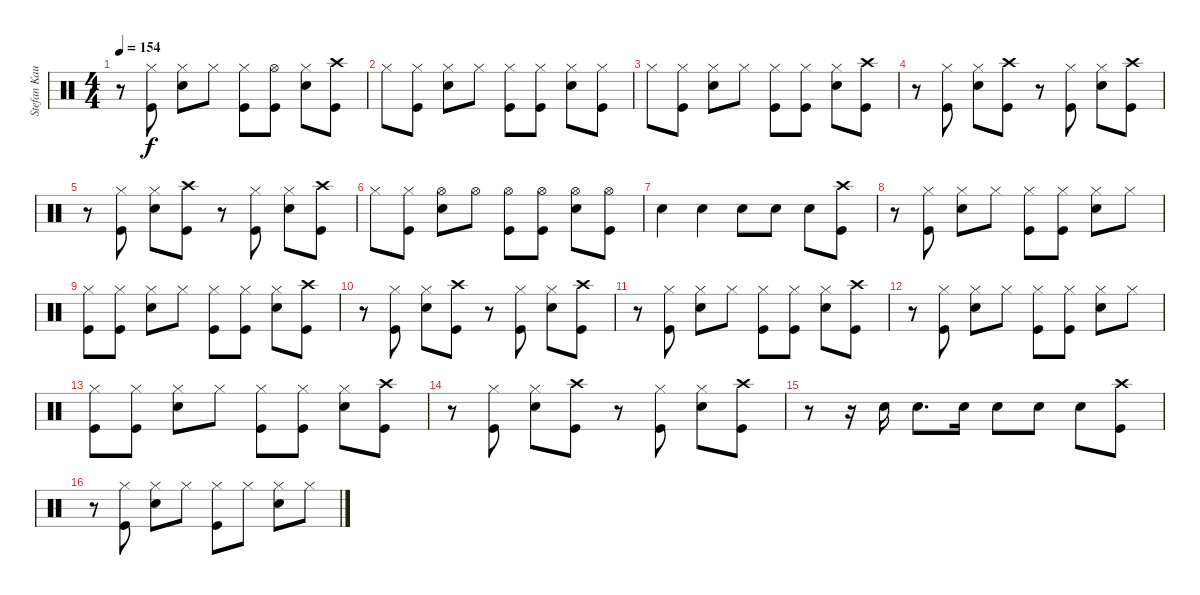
\track ("Stefan Kaufmann" "Stefan Kau") {instrument percussion}
\staff {score}
\articulation defaults
\ts (4 4)
\tempo 154
\clef neutral
\ks c
r.8{dy f} ("Hi-Hat (closed)" "Kick (hit)").8 ("Hi-Hat (closed)" "Snare (hit) 2").8 "Hi-Hat (closed)".8 ("Hi-Hat (closed)" "Kick (hit)").8 ("Hi-Hat (open)" "Kick (hit)").8 ("Hi-Hat (closed)" "Snare (hit) 2").8 ("Crash high (hit)" "Kick (hit)").8 |
"Hi-Hat (closed)".8 ("Hi-Hat (closed)" "Kick (hit)").8 ("Hi-Hat (closed)" "Snare (hit) 2").8 "Hi-Hat (closed)".8 ("Hi-Hat (closed)" "Kick (hit)").8 ("Hi-Hat (closed)" "Kick (hit)").8 ("Hi-Hat (closed)" "Snare (hit) 2").8 ("Hi-Hat (closed)" "Kick (hit)").8 |
"Hi-Hat (closed)".8 ("Hi-Hat (closed)" "Kick (hit)").8 ("Hi-Hat (closed)" "Snare (hit) 2").8 "Hi-Hat (closed)".8 ("Hi-Hat (closed)" "Kick (hit)").8 ("Hi-Hat (closed)" "Kick (hit)").8 ("Hi-Hat (closed)" "Snare (hit) 2").8 ("Crash high (hit)" "Kick (hit)").8 |
r.8 ("Hi-Hat (closed)" "Kick (hit)").8 ("Hi-Hat (closed)" "Snare (hit) 2").8 ("Crash high (hit)" "Kick (hit)").8 r.8 ("Hi-Hat (closed)" "Kick (hit)").8 ("Hi-Hat (closed)" "Snare (hit) 2").8 ("Crash high (hit)" "Kick (hit)").8 |
r.8 ("Hi-Hat (closed)" "Kick (hit)").8 ("Hi-Hat (closed)" "Snare (hit) 2").8 ("Crash high (hit)" "Kick (hit)").8 r.8 ("Hi-Hat (closed)" "Kick (hit)").8 ("Hi-Hat (closed)" "Snare (hit) 2").8 ("Crash high (hit)" "Kick (hit)").8 |
"Hi-Hat (closed)".8 ("Hi-Hat (closed)" "Kick (hit)").8 ("Hi-Hat (open)" "Snare (hit) 2").8 "Hi-Hat (open)".8 ("Hi-Hat (open)" "Kick (hit)").8 ("Hi-Hat (open)" "Kick (hit)").8 ("Hi-Hat (open)" "Snare (hit) 2").8 ("Hi-Hat (open)" "Kick (hit)").8 |
"Snare (hit) 2".4 "Snare (hit) 2".4 "Snare (hit) 2".8 "Snare (hit) 2".8 "Snare (hit) 2".8 ("Crash high (hit)" "Kick (hit)").8 |
r.8 ("Hi-Hat (closed)" "Kick (hit)").8 ("Hi-Hat (closed)" "Snare (hit) 2").8 "Hi-Hat (closed)".8 ("Hi-Hat (closed)" "Kick (hit)").8 ("Hi-Hat (closed)" "Kick (hit)").8 ("Hi-Hat (closed)" "Snare (hit) 2").8 "Hi-Hat (closed)".8 |
("Hi-Hat (closed)" "Kick (hit)").8 ("Hi-Hat (closed)" "Kick (hit)").8 ("Hi-Hat (closed)" "Snare (hit) 2").8 "Hi-Hat (closed)".8 ("Hi-Hat (closed)" "Kick (hit)").8 ("Hi-Hat (closed)" "Kick (hit)").8 ("Hi-Hat (closed)" "Snare (hit) 2").8 ("Crash high (hit)" "Kick (hit)").8 |
r.8 ("Hi-Hat (closed)" "Kick (hit)").8 ("Hi-Hat (closed)" "Snare (hit) 2").8 ("Crash high (hit)" "Kick (hit)").8 r.8 ("Hi-Hat (closed)" "Kick (hit)").8 ("Hi-Hat (closed)" "Snare (hit) 2").8 ("Crash high (hit)" "Kick (hit)").8 |
r.8 ("Hi-Hat (closed)" "Kick (hit)").8 ("Hi-Hat (closed)" "Snare (hit) 2").8 "Hi-Hat (closed)".8 ("Hi-Hat (closed)" "Kick (hit)").8 ("Hi-Hat (closed)" "Kick (hit)").8 ("Hi-Hat (closed)" "Snare (hit) 2").8 ("Crash high (hit)" "Kick (hit)").8 |
r.8 ("Hi-Hat (closed)" "Kick (hit)").8 ("Hi-Hat (closed)" "Snare (hit) 2").8 "Hi-Hat (closed)".8 ("Hi-Hat (closed)" "Kick (hit)").8 ("Hi-Hat (closed)" "Kick (hit)").8 ("Hi-Hat (closed)" "Snare (hit) 2").8 "Hi-Hat (closed)".8 |
("Hi-Hat (closed)" "Kick (hit)").8 ("Hi-Hat (closed)" "Kick (hit)").8 ("Hi-Hat (closed)" "Snare (hit) 2").8 "Hi-Hat (closed)".8 ("Hi-Hat (closed)" "Kick (hit)").8 ("Hi-Hat (closed)" "Kick (hit)").8 ("Hi-Hat (closed)" "Snare (hit) 2").8 ("Crash high (hit)" "Kick (hit)").8 |
r.8 ("Hi-Hat (closed)" "Kick (hit)").8 ("Hi-Hat (closed)" "Snare (hit) 2").8 ("Crash high (hit)" "Kick (hit)").8 r.8 ("Hi-Hat (closed)" "Kick (hit)").8 ("Hi-Hat (closed)" "Snare (hit) 2").8 ("Crash high (hit)" "Kick (hit)").8 |
r.8 r.16 "Snare (hit) 2".16 "Snare (hit) 2".8{d} "Snare (hit) 2".16 "Snare (hit) 2".8 "Snare (hit) 2".8 "Snare (hit) 2".8 ("Crash high (hit)" "Kick (hit)").8 |
r.8 ("Hi-Hat (closed)" "Kick (hit)").8 ("Hi-Hat (closed)" "Snare (hit) 2").8 "Hi-Hat (closed)".8 ("Hi-Hat (closed)" "Kick (hit)").8 "Hi-Hat (closed)".8 ("Hi-Hat (closed)" "Snare (hit) 2").8 "Hi-Hat (closed)".8
